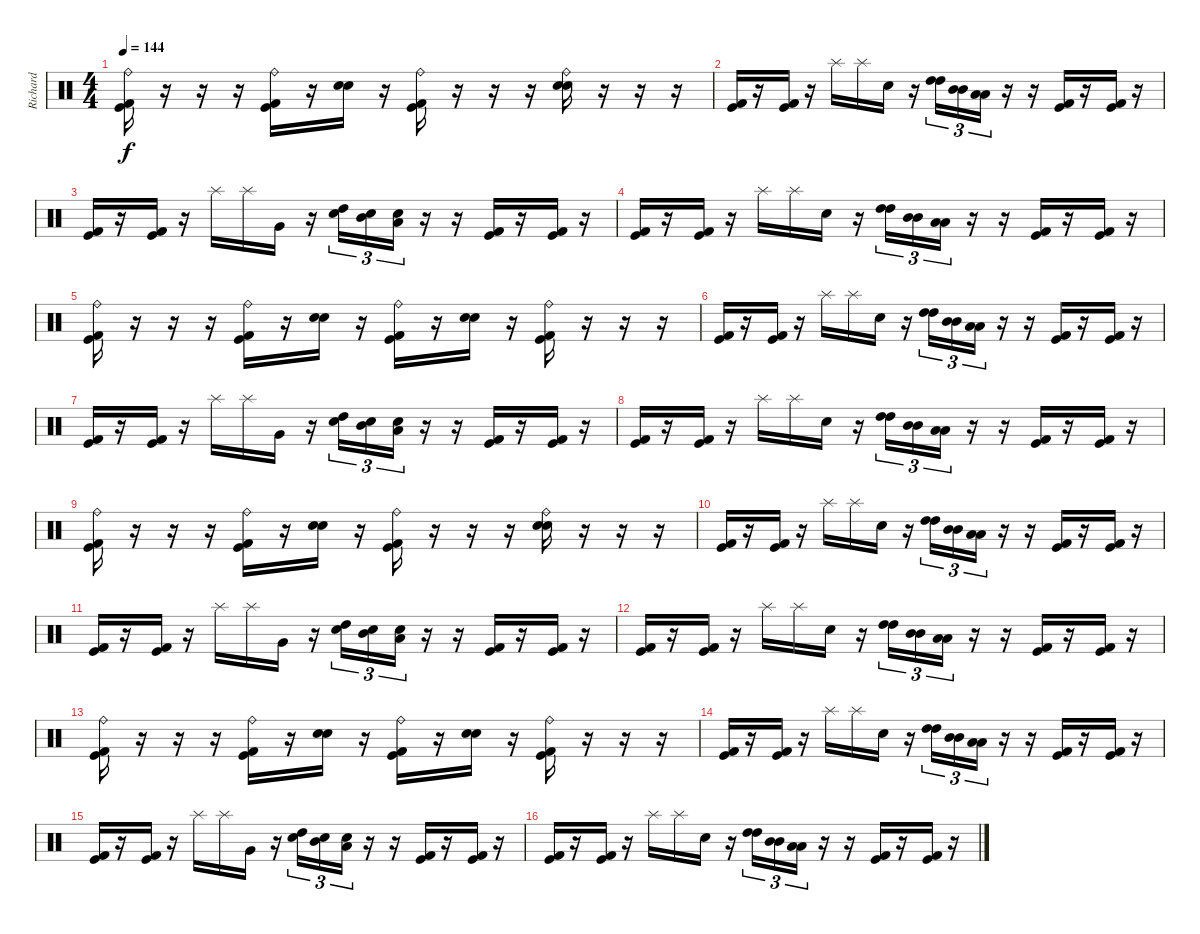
\track ("Richard" "Richard") {instrument percussion}
\staff {score}
\articulation defaults
\ts (4 4)
\tempo 144
\clef neutral
\ks c
("Ride (bell)" "Kick (hit)" "Kick (hit) 2").16{dy f} r.16 r.16 r.16 ("Ride (bell)" "Kick (hit)" "Kick (hit) 2").16 r.16 ("Snare (hit) 2" "Electric Snare (hit)").16 r.16 ("Ride (bell)" "Kick (hit)" "Kick (hit) 2").16 r.16 r.16 r.16 ("Ride (bell)" "Snare (hit) 2" "Electric Snare (hit)").16 r.16 r.16 r.16 |
("Kick (hit) 2" "Kick (hit)").16 r.16 ("Kick (hit) 2" "Kick (hit)").16 r.16 "Splash (hit)".16 "Splash (hit)".16 "Snare (hit) 2".16 r.16 ("High Tom (hit)" "High Tom (hit)").16{tu (3 2)} ("Mid Tom (hit)" "Mid Tom (hit)").16{tu (3 2)} ("Low Tom (hit)" "Low Tom (hit)").16{tu (3 2)} r.16 r.16 ("Kick (hit) 2" "Kick (hit)").16 r.16 ("Kick (hit) 2" "Kick (hit)").16 r.16 |
("Kick (hit) 2" "Kick (hit)").16 r.16 ("Kick (hit) 2" "Kick (hit)").16 r.16 "Splash (hit)".16 "Splash (hit)".16 "Very Low Tom (hit)".16 r.16 ("Snare (hit) 2" "High Tom (hit)").16{tu (3 2)} ("Snare (hit) 2" "Mid Tom (hit)").16{tu (3 2)} ("Snare (hit) 2" "Low Tom (hit)").16{tu (3 2)} r.16 r.16 ("Kick (hit)" "Kick (hit) 2").16 r.16 ("Kick (hit)" "Kick (hit) 2").16 r.16 |
("Kick (hit) 2" "Kick (hit)").16 r.16 ("Kick (hit) 2" "Kick (hit)").16 r.16 "Splash (hit)".16 "Splash (hit)".16 "Snare (hit) 2".16 r.16 ("High Tom (hit)" "High Tom (hit)").16{tu (3 2)} ("Mid Tom (hit)" "Mid Tom (hit)").16{tu (3 2)} ("Low Tom (hit)" "Low Tom (hit)").16{tu (3 2)} r.16 r.16 ("Kick (hit) 2" "Kick (hit)").16 r.16 ("Kick (hit) 2" "Kick (hit)").16 r.16 |
("Ride (bell)" "Kick (hit)" "Kick (hit) 2").16 r.16 r.16 r.16 ("Ride (bell)" "Kick (hit)" "Kick (hit) 2").16 r.16 ("Snare (hit) 2" "Electric Snare (hit)").16 r.16 ("Ride (bell)" "Kick (hit)" "Kick (hit) 2").16 r.16 ("Snare (hit) 2" "Electric Snare (hit)").16 r.16 ("Ride (bell)" "Kick (hit)" "Kick (hit) 2").16 r.16 r.16 r.16 |
("Kick (hit) 2" "Kick (hit)").16 r.16 ("Kick (hit) 2" "Kick (hit)").16 r.16 "Splash (hit)".16 "Splash (hit)".16 "Snare (hit) 2".16 r.16 ("High Tom (hit)" "High Tom (hit)").16{tu (3 2)} ("Mid Tom (hit)" "Mid Tom (hit)").16{tu (3 2)} ("Low Tom (hit)" "Low Tom (hit)").16{tu (3 2)} r.16 r.16 ("Kick (hit) 2" "Kick (hit)").16 r.16 ("Kick (hit) 2" "Kick (hit)").16 r.16 |
("Kick (hit) 2" "Kick (hit)").16 r.16 ("Kick (hit) 2" "Kick (hit)").16 r.16 "Splash (hit)".16 "Splash (hit)".16 "Very Low Tom (hit)".16 r.16 ("Snare (hit) 2" "High Tom (hit)").16{tu (3 2)} ("Snare (hit) 2" "Mid Tom (hit)").16{tu (3 2)} ("Snare (hit) 2" "Low Tom (hit)").16{tu (3 2)} r.16 r.16 ("Kick (hit)" "Kick (hit) 2").16 r.16 ("Kick (hit)" "Kick (hit) 2").16 r.16 |
("Kick (hit) 2" "Kick (hit)").16 r.16 ("Kick (hit) 2" "Kick (hit)").16 r.16 "Splash (hit)".16 "Splash (hit)".16 "Snare (hit) 2".16 r.16 ("High Tom (hit)" "High Tom (hit)").16{tu (3 2)} ("Mid Tom (hit)" "Mid Tom (hit)").16{tu (3 2)} ("Low Tom (hit)" "Low Tom (hit)").16{tu (3 2)} r.16 r.16 ("Kick (hit) 2" "Kick (hit)").16 r.16 ("Kick (hit) 2" "Kick (hit)").16 r.16 |
("Ride (bell)" "Kick (hit)" "Kick (hit) 2").16 r.16 r.16 r.16 ("Ride (bell)" "Kick (hit)" "Kick (hit) 2").16 r.16 ("Snare (hit) 2" "Electric Snare (hit)").16 r.16 ("Ride (bell)" "Kick (hit)" "Kick (hit) 2").16 r.16 r.16 r.16 ("Ride (bell)" "Snare (hit) 2" "Electric Snare (hit)").16 r.16 r.16 r.16 |
("Kick (hit) 2" "Kick (hit)").16 r.16 ("Kick (hit) 2" "Kick (hit)").16 r.16 "Splash (hit)".16 "Splash (hit)".16 "Snare (hit) 2".16 r.16 ("High Tom (hit)" "High Tom (hit)").16{tu (3 2)} ("Mid Tom (hit)" "Mid Tom (hit)").16{tu (3 2)} ("Low Tom (hit)" "Low Tom (hit)").16{tu (3 2)} r.16 r.16 ("Kick (hit) 2" "Kick (hit)").16 r.16 ("Kick (hit) 2" "Kick (hit)").16 r.16 |
("Kick (hit) 2" "Kick (hit)").16 r.16 ("Kick (hit) 2" "Kick (hit)").16 r.16 "Splash (hit)".16 "Splash (hit)".16 "Very Low Tom (hit)".16 r.16 ("Snare (hit) 2" "High Tom (hit)").16{tu (3 2)} ("Snare (hit) 2" "Mid Tom (hit)").16{tu (3 2)} ("Snare (hit) 2" "Low Tom (hit)").16{tu (3 2)} r.16 r.16 ("Kick (hit)" "Kick (hit) 2").16 r.16 ("Kick (hit)" "Kick (hit) 2").16 r.16 |
("Kick (hit) 2" "Kick (hit)").16 r.16 ("Kick (hit) 2" "Kick (hit)").16 r.16 "Splash (hit)".16 "Splash (hit)".16 "Snare (hit) 2".16 r.16 ("High Tom (hit)" "High Tom (hit)").16{tu (3 2)} ("Mid Tom (hit)" "Mid Tom (hit)").16{tu (3 2)} ("Low Tom (hit)" "Low Tom (hit)").16{tu (3 2)} r.16 r.16 ("Kick (hit) 2" "Kick (hit)").16 r.16 ("Kick (hit) 2" "Kick (hit)").16 r.16 |
("Ride (bell)" "Kick (hit)" "Kick (hit) 2").16 r.16 r.16 r.16 ("Ride (bell)" "Kick (hit)" "Kick (hit) 2").16 r.16 ("Snare (hit) 2" "Electric Snare (hit)").16 r.16 ("Ride (bell)" "Kick (hit)" "Kick (hit) 2").16 r.16 ("Snare (hit) 2" "Electric Snare (hit)").16 r.16 ("Ride (bell)" "Kick (hit)" "Kick (hit) 2").16 r.16 r.16 r.16 |
("Kick (hit) 2" "Kick (hit)").16 r.16 ("Kick (hit) 2" "Kick (hit)").16 r.16 "Splash (hit)".16 "Splash (hit)".16 "Snare (hit) 2".16 r.16 ("High Tom (hit)" "High Tom (hit)").16{tu (3 2)} ("Mid Tom (hit)" "Mid Tom (hit)").16{tu (3 2)} ("Low Tom (hit)" "Low Tom (hit)").16{tu (3 2)} r.16 r.16 ("Kick (hit) 2" "Kick (hit)").16 r.16 ("Kick (hit) 2" "Kick (hit)").16 r.16 |
("Kick (hit) 2" "Kick (hit)").16 r.16 ("Kick (hit) 2" "Kick (hit)").16 r.16 "Splash (hit)".16 "Splash (hit)".16 "Very Low Tom (hit)".16 r.16 ("Snare (hit) 2" "High Tom (hit)").16{tu (3 2)} ("Snare (hit) 2" "Mid Tom (hit)").16{tu (3 2)} ("Snare (hit) 2" "Low Tom (hit)").16{tu (3 2)} r.16 r.16 ("Kick (hit)" "Kick (hit) 2").16 r.16 ("Kick (hit)" "Kick (hit) 2").16 r.16 |
("Kick (hit) 2" "Kick (hit)").16 r.16 ("Kick (hit) 2" "Kick (hit)").16 r.16 "Splash (hit)".16 "Splash (hit)".16 "Snare (hit) 2".16 r.16 ("High Tom (hit)" "High Tom (hit)").16{tu (3 2)} ("Mid Tom (hit)" "Mid Tom (hit)").16{tu (3 2)} ("Low Tom (hit)" "Low Tom (hit)").16{tu (3 2)} r.16 r.16 ("Kick (hit) 2" "Kick (hit)").16 r.16 ("Kick (hit) 2" "Kick (hit)").16 r.16
